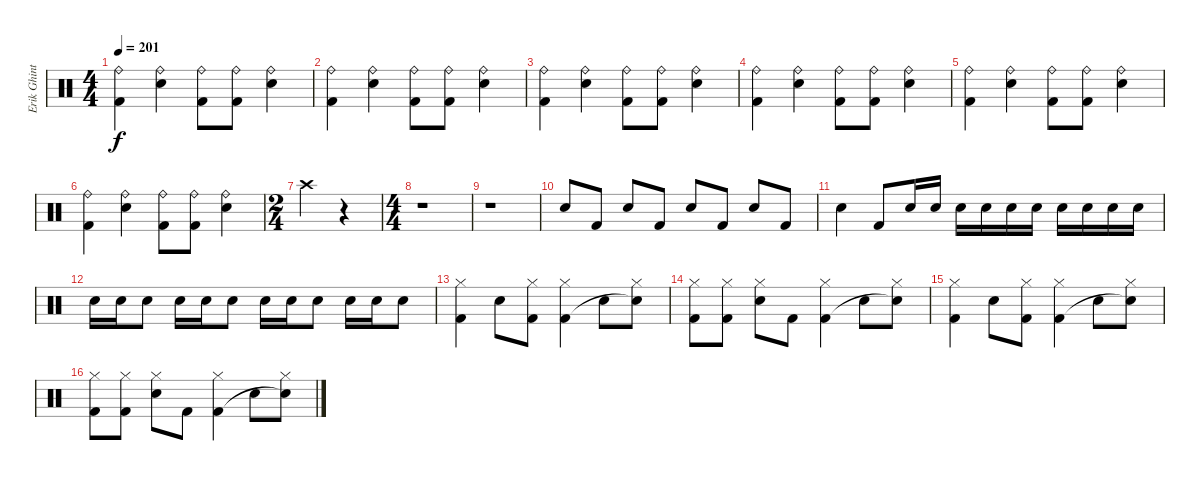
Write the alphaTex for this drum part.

\track ("Erik Ghint" "Erik Ghint") {instrument percussion}
\staff {score}
\articulation defaults
\ts (4 4)
\tempo 201
\clef neutral
\ks c
("Ride (bell)" "Kick (hit) 2").4{dy f} ("Ride (bell)" "Snare (hit) 2").4 ("Ride (bell)" "Kick (hit) 2").8 ("Ride (bell)" "Kick (hit) 2").8 ("Ride (bell)" "Snare (hit) 2").4 |
("Ride (bell)" "Kick (hit) 2").4 ("Ride (bell)" "Snare (hit) 2").4 ("Ride (bell)" "Kick (hit) 2").8 ("Ride (bell)" "Kick (hit) 2").8 ("Ride (bell)" "Snare (hit) 2").4 |
("Ride (bell)" "Kick (hit) 2").4 ("Ride (bell)" "Snare (hit) 2").4 ("Ride (bell)" "Kick (hit) 2").8 ("Ride (bell)" "Kick (hit) 2").8 ("Ride (bell)" "Snare (hit) 2").4 |
("Ride (bell)" "Kick (hit) 2").4 ("Ride (bell)" "Snare (hit) 2").4 ("Ride (bell)" "Kick (hit) 2").8 ("Ride (bell)" "Kick (hit) 2").8 ("Ride (bell)" "Snare (hit) 2").4 |
("Ride (bell)" "Kick (hit) 2").4 ("Ride (bell)" "Snare (hit) 2").4 ("Ride (bell)" "Kick (hit) 2").8 ("Ride (bell)" "Kick (hit) 2").8 ("Ride (bell)" "Snare (hit) 2").4 |
("Ride (bell)" "Kick (hit) 2").4 ("Ride (bell)" "Snare (hit) 2").4 ("Ride (bell)" "Kick (hit) 2").8 ("Ride (bell)" "Kick (hit) 2").8 ("Ride (bell)" "Snare (hit) 2").4 |
\ts (2 4)
"Crash high (hit)".4 r.4 |
\ts (4 4)
r.1 |
r.1 |
"Snare (hit) 2".8 "Kick (hit) 2".8 "Snare (hit) 2".8 "Kick (hit) 2".8 "Snare (hit) 2".8 "Kick (hit) 2".8 "Snare (hit) 2".8 "Kick (hit) 2".8 |
"Snare (hit) 2".4 "Kick (hit) 2".8 "Snare (hit) 2".16 "Snare (hit) 2".16 "Snare (hit) 2".16 "Snare (hit) 2".16 "Snare (hit) 2".16 "Snare (hit) 2".16 "Snare (hit) 2".16 "Snare (hit) 2".16 "Snare (hit) 2".16 "Snare (hit) 2".16 |
"Snare (hit) 2".16 "Snare (hit) 2".16 "Snare (hit) 2".8 "Snare (hit) 2".16 "Snare (hit) 2".16 "Snare (hit) 2".8 "Snare (hit) 2".16 "Snare (hit) 2".16 "Snare (hit) 2".8 "Snare (hit) 2".16 "Snare (hit) 2".16 "Snare (hit) 2".8 |
("Hi-Hat (closed)" "Kick (hit) 2").4 "Snare (hit) 2".8 ("Hi-Hat (closed)" "Kick (hit) 2").8 ("Hi-Hat (closed)" "Kick (hit) 2").4 "Snare (hit) 2".8 ("Hi-Hat (closed)" "Snare (hit)"{t}).8 |
("Hi-Hat (closed)" "Kick (hit) 2").8 ("Hi-Hat (closed)" "Kick (hit) 2").8 ("Hi-Hat (closed)" "Snare (hit) 2").8 "Kick (hit) 2".8 ("Hi-Hat (closed)" "Kick (hit) 2").4 "Snare (hit) 2".8 ("Hi-Hat (closed)" "Snare (hit)"{t}).8 |
("Hi-Hat (closed)" "Kick (hit) 2").4 "Snare (hit) 2".8 ("Hi-Hat (closed)" "Kick (hit) 2").8 ("Hi-Hat (closed)" "Kick (hit) 2").4 "Snare (hit) 2".8 ("Hi-Hat (closed)" "Snare (hit)"{t}).8 |
("Hi-Hat (closed)" "Kick (hit) 2").8 ("Hi-Hat (closed)" "Kick (hit) 2").8 ("Hi-Hat (closed)" "Snare (hit) 2").8 "Kick (hit) 2".8 ("Hi-Hat (closed)" "Kick (hit) 2").4 "Snare (hit) 2".8 ("Hi-Hat (closed)" "Snare (hit)"{t}).8
